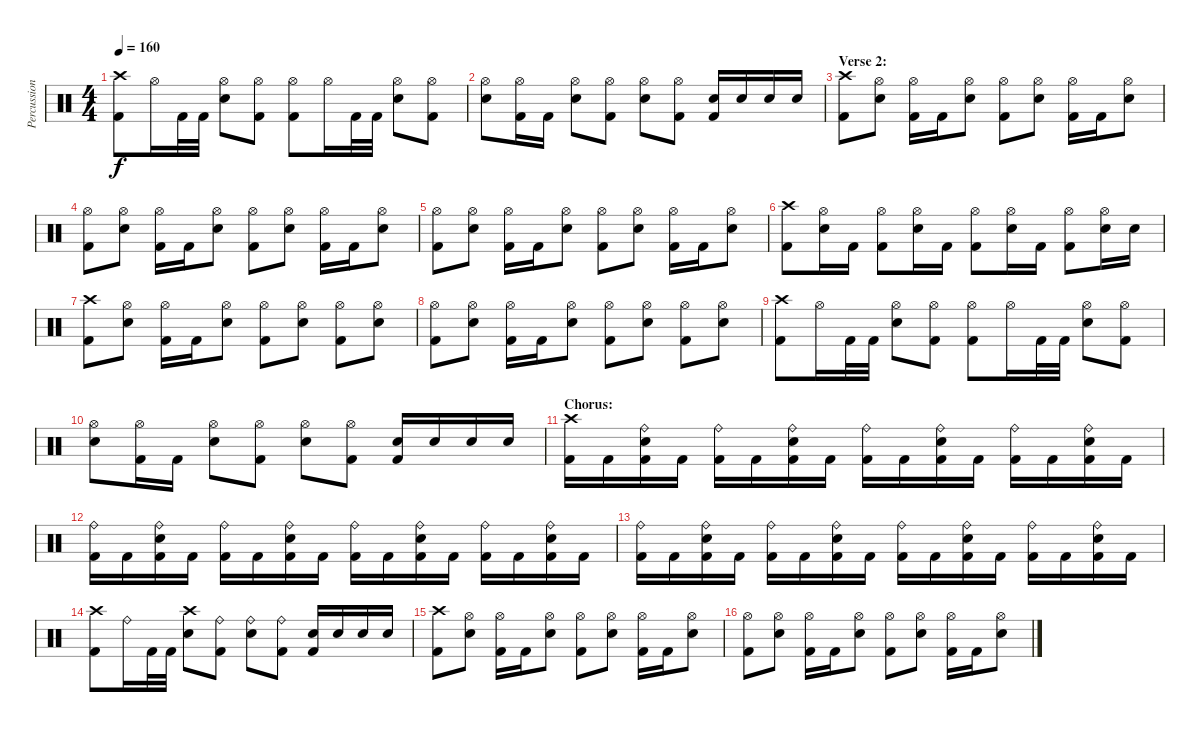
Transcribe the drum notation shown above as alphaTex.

\track ("Percussion" "Percussion") {instrument percussion}
\staff {score}
\articulation defaults
\ts (4 4)
\tempo 160
\clef neutral
\ks c
("Crash high (hit)" "Kick (hit) 2").8{dy f} "Hi-Hat (open)".16 "Kick (hit) 2".32 "Kick (hit) 2".32 ("Hi-Hat (open)" "Electric Snare (hit)").8 ("Hi-Hat (open)" "Kick (hit) 2").8 ("Hi-Hat (open)" "Kick (hit) 2").8 "Hi-Hat (open)".16 "Kick (hit) 2".32 "Kick (hit) 2".32 ("Hi-Hat (open)" "Electric Snare (hit)").8 ("Hi-Hat (open)" "Kick (hit) 2").8 |
("Hi-Hat (open)" "Electric Snare (hit)").8 ("Hi-Hat (open)" "Kick (hit) 2").16 "Kick (hit) 2".16 ("Hi-Hat (open)" "Electric Snare (hit)").8 ("Hi-Hat (open)" "Kick (hit) 2").8 ("Hi-Hat (open)" "Electric Snare (hit)").8 ("Hi-Hat (open)" "Kick (hit) 2").8 ("Electric Snare (hit)" "Kick (hit) 2").16 "Electric Snare (hit)".16 "Electric Snare (hit)".16 "Electric Snare (hit)".16 |
\section ("" "Verse 2:")
("Crash high (hit)" "Kick (hit) 2").8 ("Hi-Hat (open)" "Electric Snare (hit)").8 ("Hi-Hat (open)" "Kick (hit) 2").16 "Kick (hit) 2".16 ("Hi-Hat (open)" "Electric Snare (hit)").8 ("Hi-Hat (open)" "Kick (hit) 2").8 ("Hi-Hat (open)" "Electric Snare (hit)").8 ("Hi-Hat (open)" "Kick (hit) 2").16 "Kick (hit) 2".16 ("Hi-Hat (open)" "Electric Snare (hit)").8 |
("Hi-Hat (open)" "Kick (hit) 2").8 ("Hi-Hat (open)" "Electric Snare (hit)").8 ("Hi-Hat (open)" "Kick (hit) 2").16 "Kick (hit) 2".16 ("Hi-Hat (open)" "Electric Snare (hit)").8 ("Hi-Hat (open)" "Kick (hit) 2").8 ("Hi-Hat (open)" "Electric Snare (hit)").8 ("Hi-Hat (open)" "Kick (hit) 2").16 "Kick (hit) 2".16 ("Hi-Hat (open)" "Electric Snare (hit)").8 |
("Hi-Hat (open)" "Kick (hit) 2").8 ("Hi-Hat (open)" "Electric Snare (hit)").8 ("Hi-Hat (open)" "Kick (hit) 2").16 "Kick (hit) 2".16 ("Hi-Hat (open)" "Electric Snare (hit)").8 ("Hi-Hat (open)" "Kick (hit) 2").8 ("Hi-Hat (open)" "Electric Snare (hit)").8 ("Hi-Hat (open)" "Kick (hit) 2").16 "Kick (hit) 2".16 ("Hi-Hat (open)" "Electric Snare (hit)").8 |
("Crash high (hit)" "Kick (hit) 2").8 ("Hi-Hat (open)" "Electric Snare (hit)").16 "Kick (hit) 2".16 ("Hi-Hat (open)" "Kick (hit) 2").8 ("Hi-Hat (open)" "Electric Snare (hit)").16 "Kick (hit) 2".16 ("Hi-Hat (open)" "Kick (hit) 2").8 ("Hi-Hat (open)" "Electric Snare (hit)").16 "Kick (hit) 2".16 ("Hi-Hat (open)" "Kick (hit) 2").8 ("Hi-Hat (open)" "Electric Snare (hit)").16 "Electric Snare (hit)".16 |
("Crash high (hit)" "Kick (hit) 2").8 ("Hi-Hat (open)" "Electric Snare (hit)").8 ("Hi-Hat (open)" "Kick (hit) 2").16 "Kick (hit) 2".16 ("Hi-Hat (open)" "Electric Snare (hit)").8 ("Hi-Hat (open)" "Kick (hit) 2").8 ("Hi-Hat (open)" "Electric Snare (hit)").8 ("Hi-Hat (open)" "Kick (hit) 2").8 ("Hi-Hat (open)" "Electric Snare (hit)").8 |
("Hi-Hat (open)" "Kick (hit) 2").8 ("Hi-Hat (open)" "Electric Snare (hit)").8 ("Hi-Hat (open)" "Kick (hit) 2").16 "Kick (hit) 2".16 ("Hi-Hat (open)" "Electric Snare (hit)").8 ("Hi-Hat (open)" "Kick (hit) 2").8 ("Hi-Hat (open)" "Electric Snare (hit)").8 ("Hi-Hat (open)" "Kick (hit) 2").8 ("Hi-Hat (open)" "Electric Snare (hit)").8 |
("Crash high (hit)" "Kick (hit) 2").8 "Hi-Hat (open)".16 "Kick (hit) 2".32 "Kick (hit) 2".32 ("Hi-Hat (open)" "Electric Snare (hit)").8 ("Hi-Hat (open)" "Kick (hit) 2").8 ("Hi-Hat (open)" "Kick (hit) 2").8 "Hi-Hat (open)".16 "Kick (hit) 2".32 "Kick (hit) 2".32 ("Hi-Hat (open)" "Electric Snare (hit)").8 ("Hi-Hat (open)" "Kick (hit) 2").8 |
("Hi-Hat (open)" "Electric Snare (hit)").8 ("Hi-Hat (open)" "Kick (hit) 2").16 "Kick (hit) 2".16 ("Hi-Hat (open)" "Electric Snare (hit)").8 ("Hi-Hat (open)" "Kick (hit) 2").8 ("Hi-Hat (open)" "Electric Snare (hit)").8 ("Hi-Hat (open)" "Kick (hit) 2").8 ("Electric Snare (hit)" "Kick (hit) 2").16 "Electric Snare (hit)".16 "Electric Snare (hit)".16 "Electric Snare (hit)".16 |
\section ("" "Chorus:")
("Crash high (hit)" "Kick (hit) 2").16 "Kick (hit) 2".16 ("Ride (bell)" "Electric Snare (hit)" "Kick (hit) 2").16 "Kick (hit) 2".16 ("Ride (bell)" "Kick (hit) 2").16 "Kick (hit) 2".16 ("Ride (bell)" "Electric Snare (hit)" "Kick (hit) 2").16 "Kick (hit) 2".16 ("Ride (bell)" "Kick (hit) 2").16 "Kick (hit) 2".16 ("Ride (bell)" "Electric Snare (hit)" "Kick (hit) 2").16 "Kick (hit) 2".16 ("Ride (bell)" "Kick (hit) 2").16 "Kick (hit) 2".16 ("Ride (bell)" "Electric Snare (hit)" "Kick (hit) 2").16 "Kick (hit) 2".16 |
("Ride (bell)" "Kick (hit) 2").16 "Kick (hit) 2".16 ("Ride (bell)" "Electric Snare (hit)" "Kick (hit) 2").16 "Kick (hit) 2".16 ("Ride (bell)" "Kick (hit) 2").16 "Kick (hit) 2".16 ("Ride (bell)" "Electric Snare (hit)" "Kick (hit) 2").16 "Kick (hit) 2".16 ("Ride (bell)" "Kick (hit) 2").16 "Kick (hit) 2".16 ("Ride (bell)" "Electric Snare (hit)" "Kick (hit) 2").16 "Kick (hit) 2".16 ("Ride (bell)" "Kick (hit) 2").16 "Kick (hit) 2".16 ("Ride (bell)" "Electric Snare (hit)" "Kick (hit) 2").16 "Kick (hit) 2".16 |
("Ride (bell)" "Kick (hit) 2").16 "Kick (hit) 2".16 ("Ride (bell)" "Electric Snare (hit)" "Kick (hit) 2").16 "Kick (hit) 2".16 ("Ride (bell)" "Kick (hit) 2").16 "Kick (hit) 2".16 ("Ride (bell)" "Electric Snare (hit)" "Kick (hit) 2").16 "Kick (hit) 2".16 ("Ride (bell)" "Kick (hit) 2").16 "Kick (hit) 2".16 ("Ride (bell)" "Electric Snare (hit)" "Kick (hit) 2").16 "Kick (hit) 2".16 ("Ride (bell)" "Kick (hit) 2").16 "Kick (hit) 2".16 ("Ride (bell)" "Electric Snare (hit)" "Kick (hit) 2").16 "Kick (hit) 2".16 |
("Crash high (hit)" "Kick (hit) 2").8 "Ride (bell)".16 "Kick (hit) 2".32 "Kick (hit) 2".32 ("Crash high (hit)" "Electric Snare (hit)").8 ("Ride (bell)" "Kick (hit) 2").8 ("Ride (bell)" "Electric Snare (hit)").8 ("Ride (bell)" "Kick (hit) 2").8 ("Electric Snare (hit)" "Kick (hit) 2").16 "Electric Snare (hit)".16 "Electric Snare (hit)".16 "Electric Snare (hit)".16 |
("Crash high (hit)" "Kick (hit) 2").8 ("Hi-Hat (open)" "Electric Snare (hit)").8 ("Hi-Hat (open)" "Kick (hit) 2").16 "Kick (hit) 2".16 ("Hi-Hat (open)" "Electric Snare (hit)").8 ("Hi-Hat (open)" "Kick (hit) 2").8 ("Hi-Hat (open)" "Electric Snare (hit)").8 ("Hi-Hat (open)" "Kick (hit) 2").16 "Kick (hit) 2".16 ("Hi-Hat (open)" "Electric Snare (hit)").8 |
("Hi-Hat (open)" "Kick (hit) 2").8 ("Hi-Hat (open)" "Electric Snare (hit)").8 ("Hi-Hat (open)" "Kick (hit) 2").16 "Kick (hit) 2".16 ("Hi-Hat (open)" "Electric Snare (hit)").8 ("Hi-Hat (open)" "Kick (hit) 2").8 ("Hi-Hat (open)" "Electric Snare (hit)").8 ("Hi-Hat (open)" "Kick (hit) 2").16 "Kick (hit) 2".16 ("Hi-Hat (open)" "Electric Snare (hit)").8
